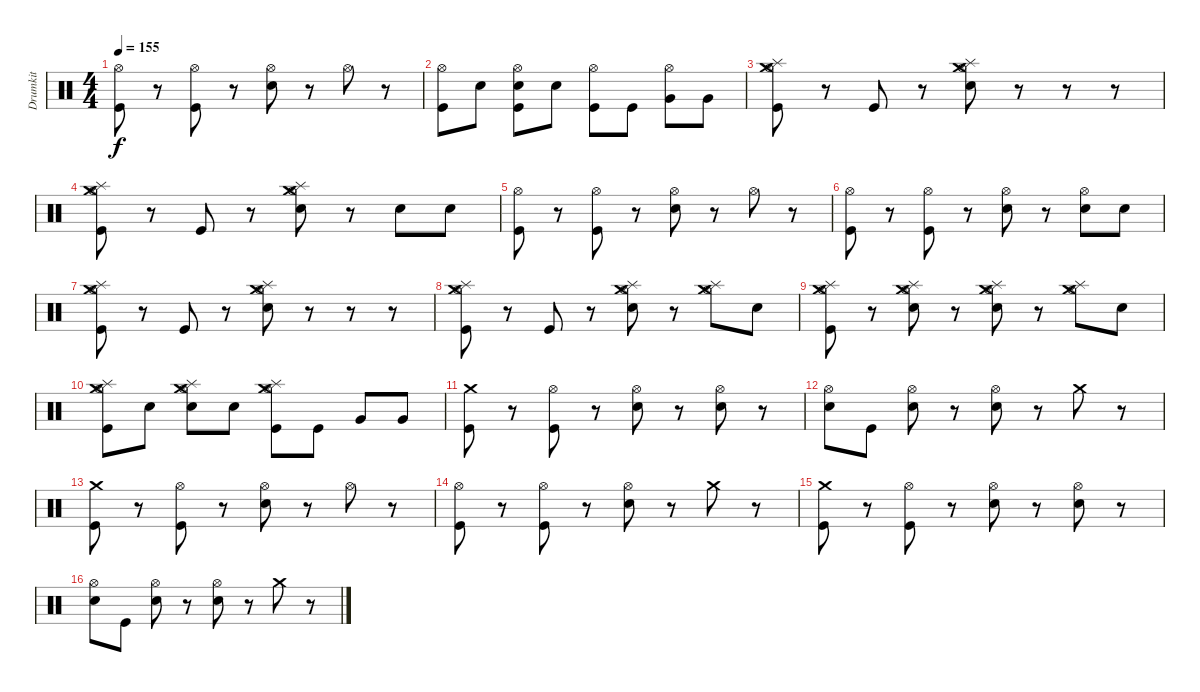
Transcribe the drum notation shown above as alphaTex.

\track ("Drumkit" "Drumkit") {instrument percussion}
\staff {score}
\articulation defaults
\ts (4 4)
\tempo 155
\clef neutral
\ks c
("Hi-Hat (open)" "Kick (hit)").8{dy f} r.8 ("Hi-Hat (open)" "Kick (hit)").8 r.8 ("Hi-Hat (open)" "Snare (hit) 2").8 r.8 "Hi-Hat (open)".8 r.8 |
("Hi-Hat (open)" "Kick (hit)").8 "Snare (hit) 2".8 ("Hi-Hat (open)" "Snare (hit) 2" "Kick (hit)").8 "Snare (hit) 2".8 ("Hi-Hat (open)" "Kick (hit)").8 "Kick (hit)".8 ("Hi-Hat (open)" "Very Low Tom (hit)").8 "Very Low Tom (hit)".8 |
("Hi-Hat (open)" "Splash (hit)" "Crash medium (hit)" "Kick (hit)").8 r.8 "Kick (hit)".8 r.8 ("Hi-Hat (open)" "Splash (hit)" "Crash medium (hit)" "Snare (hit) 2").8 r.8 r.8 r.8 |
("Hi-Hat (open)" "Splash (hit)" "Crash medium (hit)" "Kick (hit)").8 r.8 "Kick (hit)".8 r.8 ("Hi-Hat (open)" "Splash (hit)" "Crash medium (hit)" "Snare (hit) 2").8 r.8 "Snare (hit) 2".8 "Snare (hit) 2".8 |
("Hi-Hat (open)" "Kick (hit)").8 r.8 ("Hi-Hat (open)" "Kick (hit)").8 r.8 ("Hi-Hat (open)" "Snare (hit) 2").8 r.8 "Hi-Hat (open)".8 r.8 |
("Hi-Hat (open)" "Kick (hit)").8 r.8 ("Hi-Hat (open)" "Kick (hit)").8 r.8 ("Hi-Hat (open)" "Snare (hit) 2").8 r.8 ("Hi-Hat (open)" "Snare (hit) 2").8 "Snare (hit) 2".8 |
("Hi-Hat (open)" "Splash (hit)" "Crash medium (hit)" "Kick (hit)").8 r.8 "Kick (hit)".8 r.8 ("Hi-Hat (open)" "Splash (hit)" "Crash medium (hit)" "Snare (hit) 2").8 r.8 r.8 r.8 |
("Hi-Hat (open)" "Splash (hit)" "Crash medium (hit)" "Kick (hit)").8 r.8 "Kick (hit)".8 r.8 ("Hi-Hat (open)" "Splash (hit)" "Crash medium (hit)" "Snare (hit) 2").8 r.8 ("Hi-Hat (open)" "Splash (hit)" "Crash medium (hit)").8 "Snare (hit) 2".8 |
("Hi-Hat (open)" "Splash (hit)" "Crash medium (hit)" "Kick (hit)").8 r.8 ("Hi-Hat (open)" "Splash (hit)" "Crash medium (hit)" "Snare (hit) 2").8 r.8 ("Hi-Hat (open)" "Splash (hit)" "Crash medium (hit)" "Snare (hit) 2").8 r.8 ("Hi-Hat (open)" "Splash (hit)" "Crash medium (hit)").8 "Snare (hit) 2".8 |
("Hi-Hat (open)" "Splash (hit)" "Crash medium (hit)" "Kick (hit)").8 "Snare (hit) 2".8 ("Hi-Hat (open)" "Splash (hit)" "Crash medium (hit)" "Snare (hit) 2").8 "Snare (hit) 2".8 ("Hi-Hat (open)" "Splash (hit)" "Crash medium (hit)" "Kick (hit)").8 "Kick (hit)".8 "Very Low Tom (hit)".8 "Very Low Tom (hit)".8 |
("Crash medium (hit)" "Kick (hit)").8 r.8 ("Hi-Hat (open)" "Kick (hit)").8 r.8 ("Hi-Hat (open)" "Snare (hit) 2").8 r.8 ("Hi-Hat (open)" "Snare (hit) 2").8 r.8 |
("Hi-Hat (open)" "Snare (hit) 2").8 "Kick (hit)".8 ("Hi-Hat (open)" "Snare (hit) 2").8 r.8 ("Hi-Hat (open)" "Snare (hit) 2").8 r.8 "Crash medium (hit)".8 r.8 |
("Crash medium (hit)" "Kick (hit)").8 r.8 ("Hi-Hat (open)" "Kick (hit)").8 r.8 ("Hi-Hat (open)" "Snare (hit) 2").8 r.8 "Hi-Hat (open)".8 r.8 |
("Hi-Hat (open)" "Kick (hit)").8 r.8 ("Hi-Hat (open)" "Kick (hit)").8 r.8 ("Hi-Hat (open)" "Snare (hit) 2").8 r.8 "Crash medium (hit)".8 r.8 |
("Crash medium (hit)" "Kick (hit)").8 r.8 ("Hi-Hat (open)" "Kick (hit)").8 r.8 ("Hi-Hat (open)" "Snare (hit) 2").8 r.8 ("Hi-Hat (open)" "Snare (hit) 2").8 r.8 |
("Hi-Hat (open)" "Snare (hit) 2").8 "Kick (hit)".8 ("Hi-Hat (open)" "Snare (hit) 2").8 r.8 ("Hi-Hat (open)" "Snare (hit) 2").8 r.8 "Crash medium (hit)".8 r.8
